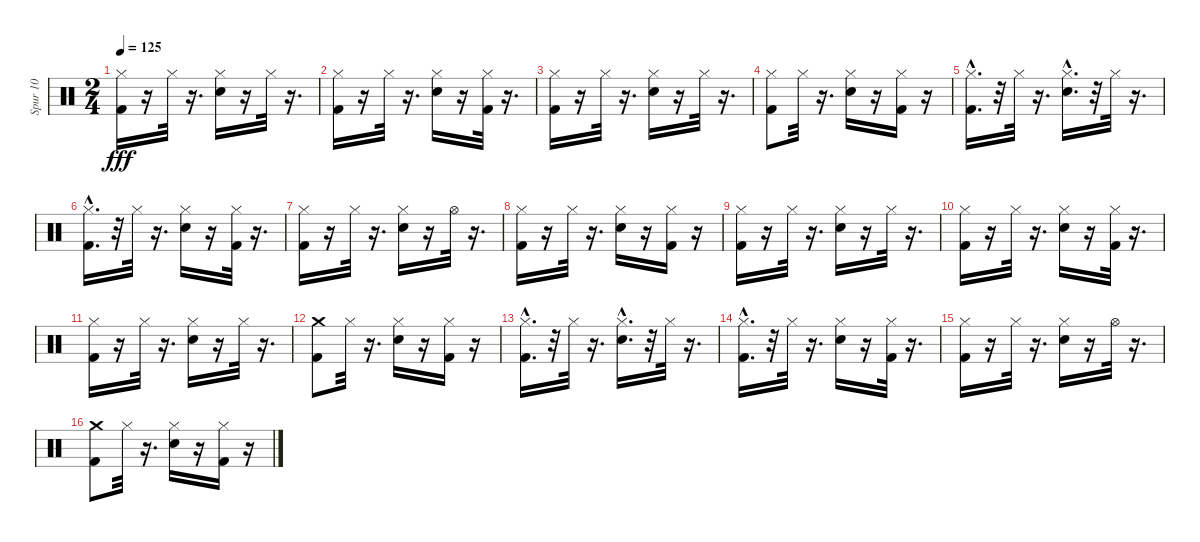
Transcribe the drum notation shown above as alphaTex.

\track ("Spur 10" "Spur 10") {instrument percussion}
\staff {score}
\articulation defaults
\ts (2 4)
\tempo 125
\clef neutral
\ks c
("Kick (hit) 2" "Hi-Hat (closed)").16{dy fff} r.16 "Hi-Hat (closed)".32 r.16{d} ("Snare (hit) 2" "Hi-Hat (closed)").16 r.16 "Hi-Hat (closed)".32 r.16{d} |
("Kick (hit) 2" "Hi-Hat (closed)").16 r.16 "Hi-Hat (closed)".32 r.16{d} ("Snare (hit) 2" "Hi-Hat (closed)").16 r.16 ("Kick (hit) 2" "Hi-Hat (closed)").32 r.16{d} |
("Kick (hit) 2" "Hi-Hat (closed)").16 r.16 "Hi-Hat (closed)".32 r.16{d} ("Snare (hit) 2" "Hi-Hat (closed)").16 r.16 "Hi-Hat (closed)".32 r.16{d} |
("Kick (hit) 2" "Hi-Hat (closed)").8 "Hi-Hat (closed)".32 r.16{d} ("Snare (hit) 2" "Hi-Hat (closed)").16 r.16 ("Kick (hit) 2" "Hi-Hat (closed)").16 r.16 |
("Kick (hit) 2"{hac} "Hi-Hat (closed)").16{d} r.32 "Hi-Hat (closed)".32 r.16{d} ("Snare (hit) 2"{hac} "Hi-Hat (closed)").16{d} r.32 "Hi-Hat (closed)".32 r.16{d} |
("Kick (hit) 2"{hac} "Hi-Hat (closed)").16{d} r.32 "Hi-Hat (closed)".32 r.16{d} ("Snare (hit) 2" "Hi-Hat (closed)").16 r.16 ("Kick (hit) 2" "Hi-Hat (closed)").32 r.16{d} |
("Kick (hit) 2" "Hi-Hat (closed)").16 r.16 "Hi-Hat (closed)".32 r.16{d} ("Snare (hit) 2" "Hi-Hat (closed)").16 r.16 "Hi-Hat (open)".32 r.16{d} |
("Kick (hit) 2" "Hi-Hat (closed)").16 r.16 "Hi-Hat (closed)".32 r.16{d} ("Snare (hit) 2" "Hi-Hat (closed)").16 r.16 ("Kick (hit) 2" "Hi-Hat (closed)").16 r.16 |
("Kick (hit) 2" "Hi-Hat (closed)").16 r.16 "Hi-Hat (closed)".32 r.16{d} ("Snare (hit) 2" "Hi-Hat (closed)").16 r.16 "Hi-Hat (closed)".32 r.16{d} |
("Kick (hit) 2" "Hi-Hat (closed)").16 r.16 "Hi-Hat (closed)".32 r.16{d} ("Snare (hit) 2" "Hi-Hat (closed)").16 r.16 ("Kick (hit) 2" "Hi-Hat (closed)").32 r.16{d} |
("Kick (hit) 2" "Hi-Hat (closed)").16 r.16 "Hi-Hat (closed)".32 r.16{d} ("Snare (hit) 2" "Hi-Hat (closed)").16 r.16 "Hi-Hat (closed)".32 r.16{d} |
("Kick (hit) 2" "Crash medium (hit)").8 "Hi-Hat (closed)".32 r.16{d} ("Snare (hit) 2" "Hi-Hat (closed)").16 r.16 ("Kick (hit) 2" "Hi-Hat (closed)").16 r.16 |
("Kick (hit) 2"{hac} "Hi-Hat (closed)").16{d} r.32 "Hi-Hat (closed)".32 r.16{d} ("Snare (hit) 2"{hac} "Hi-Hat (closed)").16{d} r.32 "Hi-Hat (closed)".32 r.16{d} |
("Kick (hit) 2"{hac} "Hi-Hat (closed)").16{d} r.32 "Hi-Hat (closed)".32 r.16{d} ("Snare (hit) 2" "Hi-Hat (closed)").16 r.16 ("Kick (hit) 2" "Hi-Hat (closed)").32 r.16{d} |
("Kick (hit) 2" "Hi-Hat (closed)").16 r.16 "Hi-Hat (closed)".32 r.16{d} ("Snare (hit) 2" "Hi-Hat (closed)").16 r.16 "Hi-Hat (open)".32 r.16{d} |
("Kick (hit) 2" "Crash medium (hit)").8 "Hi-Hat (closed)".32 r.16{d} ("Snare (hit) 2" "Hi-Hat (closed)").16 r.16 ("Kick (hit) 2" "Hi-Hat (closed)").16 r.16
